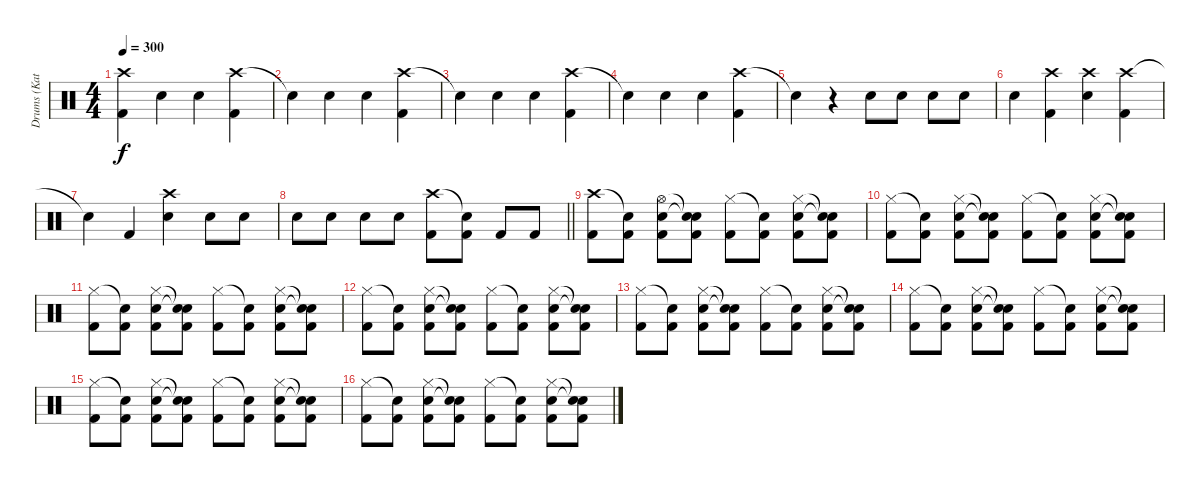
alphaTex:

\track ("Drums (Katsuji)" "Drums (Kat") {instrument percussion}
\staff {score}
\articulation defaults
\ts (4 4)
\tempo 300
\clef neutral
\ks c
("Crash high (hit)" "Kick (hit) 2").4{dy f} "Snare (hit) 2".4 "Snare (hit) 2".4 ("Crash high (hit)" "Kick (hit) 2").4 |
"Snare (hit)"{t}.4 "Snare (hit) 2".4 "Snare (hit) 2".4 ("Crash high (hit)" "Kick (hit) 2").4 |
"Snare (hit)"{t}.4 "Snare (hit) 2".4 "Snare (hit) 2".4 ("Crash high (hit)" "Kick (hit) 2").4 |
"Snare (hit)"{t}.4 "Snare (hit) 2".4 "Snare (hit) 2".4 ("Crash high (hit)" "Kick (hit) 2").4 |
"Snare (hit)"{t}.4 r.4 "Snare (hit) 2".8 "Snare (hit) 2".8 "Snare (hit) 2".8 "Snare (hit) 2".8 |
"Snare (hit) 2".4 ("Crash high (hit)" "Kick (hit) 2").4 ("Crash high (hit)" "Snare (hit) 2").4 ("Crash high (hit)" "Kick (hit) 2").4 |
"Snare (hit)"{t}.4 "Kick (hit) 2".4 ("Crash high (hit)" "Snare (hit) 2").4 "Snare (hit) 2".8 "Snare (hit) 2".8 |
\barLineRight lightlight "Snare (hit) 2".8 "Snare (hit) 2".8 "Snare (hit) 2".8 "Snare (hit) 2".8
("Crash high (hit)" "Kick (hit) 2").8 ("Snare (hit)"{t} "Kick (hit) 2").8 "Kick (hit) 2".8 "Kick (hit) 2".8 |
("Crash high (hit)" "Kick (hit) 2").8 ("Snare (hit)"{t} "Kick (hit) 2").8 ("Hi-Hat (open)" "Snare (hit) 2" "Kick (hit) 2").8 ("Snare (hit)"{t} "Snare (hit)"{t} "Kick (hit) 2").8 ("Hi-Hat (closed)" "Kick (hit) 2").8 ("Snare (hit)"{t} "Kick (hit) 2").8 ("Hi-Hat (closed)" "Snare (hit) 2" "Kick (hit) 2").8 ("Snare (hit)"{t} "Snare (hit)"{t} "Kick (hit) 2").8 |
("Hi-Hat (closed)" "Kick (hit) 2").8 ("Snare (hit)"{t} "Kick (hit) 2").8 ("Hi-Hat (closed)" "Snare (hit) 2" "Kick (hit) 2").8 ("Snare (hit)"{t} "Snare (hit)"{t} "Kick (hit) 2").8 ("Hi-Hat (closed)" "Kick (hit) 2").8 ("Snare (hit)"{t} "Kick (hit) 2").8 ("Hi-Hat (closed)" "Snare (hit) 2" "Kick (hit) 2").8 ("Snare (hit)"{t} "Snare (hit)"{t} "Kick (hit) 2").8 |
("Hi-Hat (closed)" "Kick (hit) 2").8 ("Snare (hit)"{t} "Kick (hit) 2").8 ("Hi-Hat (closed)" "Snare (hit) 2" "Kick (hit) 2").8 ("Snare (hit)"{t} "Snare (hit)"{t} "Kick (hit) 2").8 ("Hi-Hat (closed)" "Kick (hit) 2").8 ("Snare (hit)"{t} "Kick (hit) 2").8 ("Hi-Hat (closed)" "Snare (hit) 2" "Kick (hit) 2").8 ("Snare (hit)"{t} "Snare (hit)"{t} "Kick (hit) 2").8 |
("Hi-Hat (closed)" "Kick (hit) 2").8 ("Snare (hit)"{t} "Kick (hit) 2").8 ("Hi-Hat (closed)" "Snare (hit) 2" "Kick (hit) 2").8 ("Snare (hit)"{t} "Snare (hit)"{t} "Kick (hit) 2").8 ("Hi-Hat (closed)" "Kick (hit) 2").8 ("Snare (hit)"{t} "Kick (hit) 2").8 ("Hi-Hat (closed)" "Snare (hit) 2" "Kick (hit) 2").8 ("Snare (hit)"{t} "Snare (hit)"{t} "Kick (hit) 2").8 |
("Hi-Hat (closed)" "Kick (hit) 2").8 ("Snare (hit)"{t} "Kick (hit) 2").8 ("Hi-Hat (closed)" "Snare (hit) 2" "Kick (hit) 2").8 ("Snare (hit)"{t} "Snare (hit)"{t} "Kick (hit) 2").8 ("Hi-Hat (closed)" "Kick (hit) 2").8 ("Snare (hit)"{t} "Kick (hit) 2").8 ("Hi-Hat (closed)" "Snare (hit) 2" "Kick (hit) 2").8 ("Snare (hit)"{t} "Snare (hit)"{t} "Kick (hit) 2").8 |
("Hi-Hat (closed)" "Kick (hit) 2").8 ("Snare (hit)"{t} "Kick (hit) 2").8 ("Hi-Hat (closed)" "Snare (hit) 2" "Kick (hit) 2").8 ("Snare (hit)"{t} "Snare (hit)"{t} "Kick (hit) 2").8 ("Hi-Hat (closed)" "Kick (hit) 2").8 ("Snare (hit)"{t} "Kick (hit) 2").8 ("Hi-Hat (closed)" "Snare (hit) 2" "Kick (hit) 2").8 ("Snare (hit)"{t} "Snare (hit)"{t} "Kick (hit) 2").8 |
("Hi-Hat (closed)" "Kick (hit) 2").8 ("Snare (hit)"{t} "Kick (hit) 2").8 ("Hi-Hat (closed)" "Snare (hit) 2" "Kick (hit) 2").8 ("Snare (hit)"{t} "Snare (hit)"{t} "Kick (hit) 2").8 ("Hi-Hat (closed)" "Kick (hit) 2").8 ("Snare (hit)"{t} "Kick (hit) 2").8 ("Hi-Hat (closed)" "Snare (hit) 2" "Kick (hit) 2").8 ("Snare (hit)"{t} "Snare (hit)"{t} "Kick (hit) 2").8 |
("Hi-Hat (closed)" "Kick (hit) 2").8 ("Snare (hit)"{t} "Kick (hit) 2").8 ("Hi-Hat (closed)" "Snare (hit) 2" "Kick (hit) 2").8 ("Snare (hit)"{t} "Snare (hit)"{t} "Kick (hit) 2").8 ("Hi-Hat (closed)" "Kick (hit) 2").8 ("Snare (hit)"{t} "Kick (hit) 2").8 ("Hi-Hat (closed)" "Snare (hit) 2" "Kick (hit) 2").8 ("Snare (hit)"{t} "Snare (hit)"{t} "Kick (hit) 2").8
